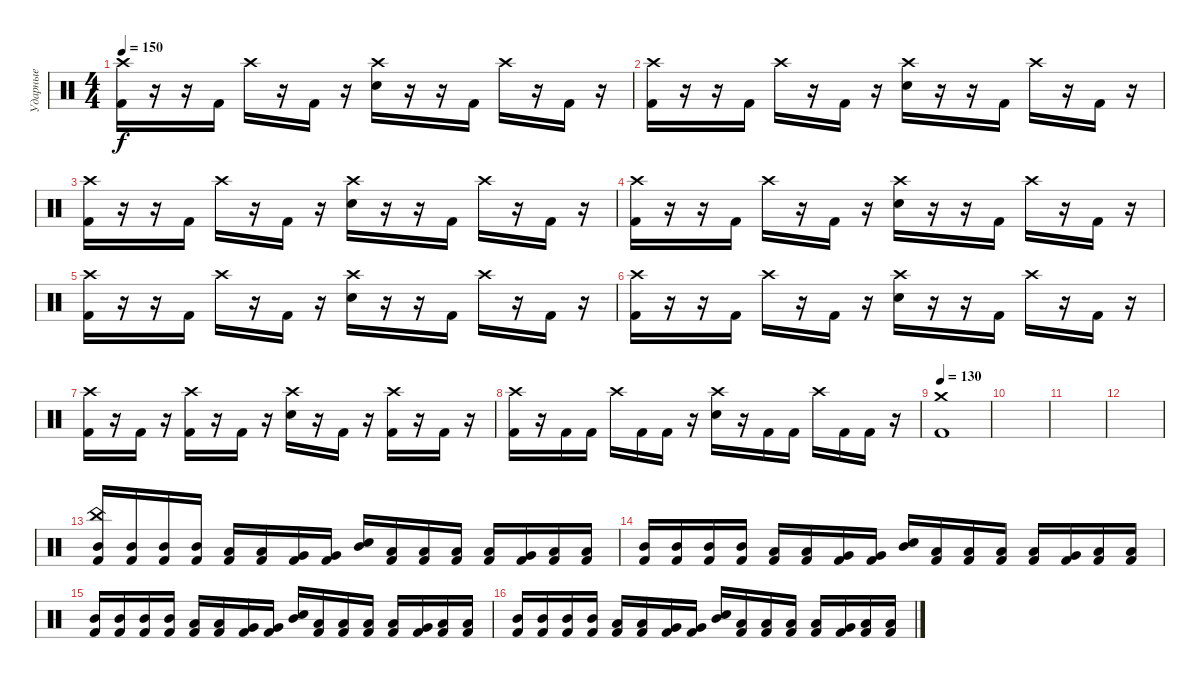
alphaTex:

\track ("Ударные" "Ударные") {instrument percussion}
\staff {score}
\articulation defaults
\ts (4 4)
\tempo 150
\clef neutral
\ks c
("Crash high (hit)" "Kick (hit) 2").16{dy f} r.16 r.16 "Kick (hit) 2".16 "Crash high (hit)".16 r.16 "Kick (hit) 2".16 r.16 ("Crash high (hit)" "Electric Snare (hit)").16 r.16 r.16 "Kick (hit) 2".16 "Crash high (hit)".16 r.16 "Kick (hit) 2".16 r.16 |
("Crash high (hit)" "Kick (hit) 2").16 r.16 r.16 "Kick (hit) 2".16 "Crash high (hit)".16 r.16 "Kick (hit) 2".16 r.16 ("Crash high (hit)" "Electric Snare (hit)").16 r.16 r.16 "Kick (hit) 2".16 "Crash high (hit)".16 r.16 "Kick (hit) 2".16 r.16 |
("Crash high (hit)" "Kick (hit) 2").16 r.16 r.16 "Kick (hit) 2".16 "Crash high (hit)".16 r.16 "Kick (hit) 2".16 r.16 ("Crash high (hit)" "Electric Snare (hit)").16 r.16 r.16 "Kick (hit) 2".16 "Crash high (hit)".16 r.16 "Kick (hit) 2".16 r.16 |
("Crash high (hit)" "Kick (hit) 2").16 r.16 r.16 "Kick (hit) 2".16 "Crash high (hit)".16 r.16 "Kick (hit) 2".16 r.16 ("Crash high (hit)" "Electric Snare (hit)").16 r.16 r.16 "Kick (hit) 2".16 "Crash high (hit)".16 r.16 "Kick (hit) 2".16 r.16 |
("Crash high (hit)" "Kick (hit) 2").16 r.16 r.16 "Kick (hit) 2".16 "Crash high (hit)".16 r.16 "Kick (hit) 2".16 r.16 ("Crash high (hit)" "Electric Snare (hit)").16 r.16 r.16 "Kick (hit) 2".16 "Crash high (hit)".16 r.16 "Kick (hit) 2".16 r.16 |
("Crash high (hit)" "Kick (hit) 2").16 r.16 r.16 "Kick (hit) 2".16 "Crash high (hit)".16 r.16 "Kick (hit) 2".16 r.16 ("Crash high (hit)" "Electric Snare (hit)").16 r.16 r.16 "Kick (hit) 2".16 "Crash high (hit)".16 r.16 "Kick (hit) 2".16 r.16 |
("Crash high (hit)" "Kick (hit) 2").16 r.16 "Kick (hit) 2".16 r.16 ("Crash high (hit)" "Kick (hit) 2").16 r.16 "Kick (hit) 2".16 r.16 ("Crash high (hit)" "Electric Snare (hit)").16 r.16 "Kick (hit) 2".16 r.16 ("Crash high (hit)" "Kick (hit) 2").16 r.16 "Kick (hit) 2".16 r.16 |
("Crash high (hit)" "Kick (hit) 2").16 r.16 "Kick (hit) 2".16 "Kick (hit) 2".16 "Crash high (hit)".16 "Kick (hit) 2".16 "Kick (hit) 2".16 r.16 ("Crash high (hit)" "Electric Snare (hit)").16 r.16 "Kick (hit) 2".16 "Kick (hit) 2".16 "Crash high (hit)".16 "Kick (hit) 2".16 "Kick (hit) 2".16 r.16 |
\tempo 130
("Crash medium (hit)" "Kick (hit) 2").1 |
|
|
|
("China (hit)" "Mid Tom (hit)" "Kick (hit) 2").16 ("Mid Tom (hit)" "Kick (hit) 2").16 ("Mid Tom (hit)" "Kick (hit) 2").16 ("Mid Tom (hit)" "Kick (hit) 2").16 ("Low Tom (hit)" "Kick (hit) 2").16 ("Low Tom (hit)" "Kick (hit) 2").16 ("Very Low Tom (hit)" "Kick (hit) 2").16 ("Very Low Tom (hit)" "Kick (hit) 2").16 ("Mid Tom (hit)" "Electric Snare (hit)").16 ("Low Tom (hit)" "Kick (hit) 2").16 ("Low Tom (hit)" "Kick (hit) 2").16 ("Low Tom (hit)" "Kick (hit) 2").16 ("Low Tom (hit)" "Kick (hit) 2").16 ("Very Low Tom (hit)" "Kick (hit) 2").16 ("Low Floor Tom (hit)" "Kick (hit) 2").16 ("Low Floor Tom (hit)" "Kick (hit) 2").16 |
("Mid Tom (hit)" "Kick (hit) 2").16 ("Mid Tom (hit)" "Kick (hit) 2").16 ("Mid Tom (hit)" "Kick (hit) 2").16 ("Mid Tom (hit)" "Kick (hit) 2").16 ("Low Tom (hit)" "Kick (hit) 2").16 ("Low Tom (hit)" "Kick (hit) 2").16 ("Very Low Tom (hit)" "Kick (hit) 2").16 ("Very Low Tom (hit)" "Kick (hit) 2").16 ("Mid Tom (hit)" "Electric Snare (hit)").16 ("Low Tom (hit)" "Kick (hit) 2").16 ("Low Tom (hit)" "Kick (hit) 2").16 ("Low Tom (hit)" "Kick (hit) 2").16 ("Low Tom (hit)" "Kick (hit) 2").16 ("Very Low Tom (hit)" "Kick (hit) 2").16 ("Low Floor Tom (hit)" "Kick (hit) 2").16 ("Low Floor Tom (hit)" "Kick (hit) 2").16 |
("Mid Tom (hit)" "Kick (hit) 2").16 ("Mid Tom (hit)" "Kick (hit) 2").16 ("Mid Tom (hit)" "Kick (hit) 2").16 ("Mid Tom (hit)" "Kick (hit) 2").16 ("Low Tom (hit)" "Kick (hit) 2").16 ("Low Tom (hit)" "Kick (hit) 2").16 ("Very Low Tom (hit)" "Kick (hit) 2").16 ("Very Low Tom (hit)" "Kick (hit) 2").16 ("Mid Tom (hit)" "Electric Snare (hit)").16 ("Low Tom (hit)" "Kick (hit) 2").16 ("Low Tom (hit)" "Kick (hit) 2").16 ("Low Tom (hit)" "Kick (hit) 2").16 ("Low Tom (hit)" "Kick (hit) 2").16 ("Very Low Tom (hit)" "Kick (hit) 2").16 ("Low Floor Tom (hit)" "Kick (hit) 2").16 ("Low Floor Tom (hit)" "Kick (hit) 2").16 |
("Mid Tom (hit)" "Kick (hit) 2").16 ("Mid Tom (hit)" "Kick (hit) 2").16 ("Mid Tom (hit)" "Kick (hit) 2").16 ("Mid Tom (hit)" "Kick (hit) 2").16 ("Low Tom (hit)" "Kick (hit) 2").16 ("Low Tom (hit)" "Kick (hit) 2").16 ("Very Low Tom (hit)" "Kick (hit) 2").16 ("Very Low Tom (hit)" "Kick (hit) 2").16 ("Mid Tom (hit)" "Electric Snare (hit)").16 ("Low Tom (hit)" "Kick (hit) 2").16 ("Low Tom (hit)" "Kick (hit) 2").16 ("Low Tom (hit)" "Kick (hit) 2").16 ("Low Tom (hit)" "Kick (hit) 2").16 ("Very Low Tom (hit)" "Kick (hit) 2").16 ("Low Floor Tom (hit)" "Kick (hit) 2").16 ("Low Floor Tom (hit)" "Kick (hit) 2").16
